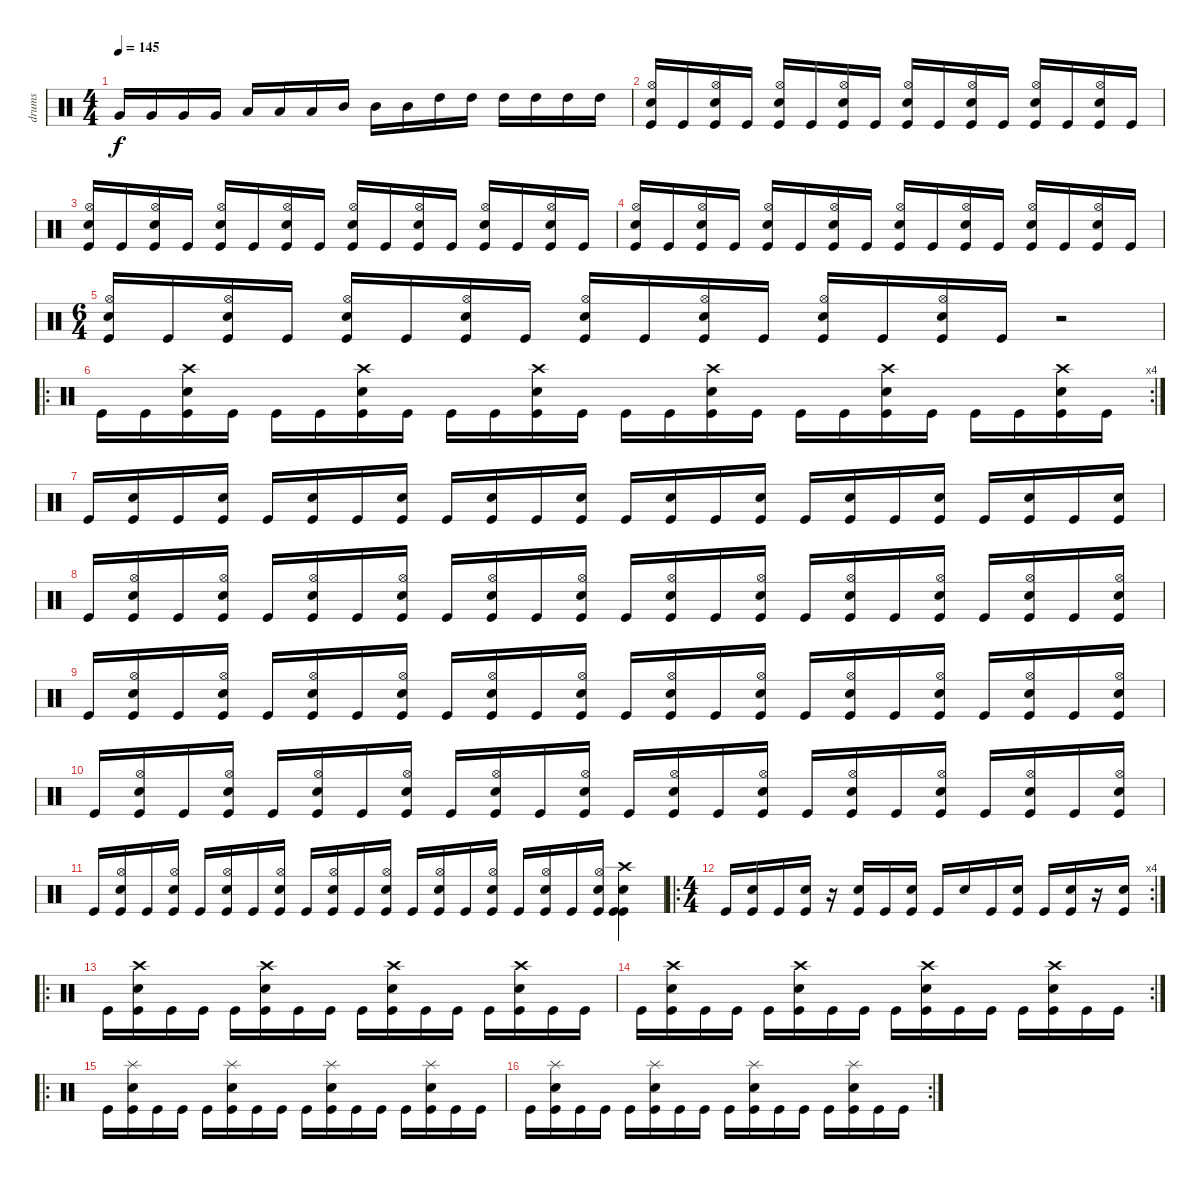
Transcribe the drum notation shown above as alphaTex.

\track ("drums" "drums") {instrument percussion}
\staff {score}
\articulation defaults
\ts (4 4)
\tempo 145
\clef neutral
\ks c "Very Low Tom (hit)".16{dy f} "Very Low Tom (hit)".16 "Very Low Tom (hit)".16 "Very Low Tom (hit)".16 "Low Tom (hit)".16 "Low Tom (hit)".16 "Low Tom (hit)".16 "Mid Tom (hit)".16 "Mid Tom (hit)".16 "Mid Tom (hit)".16 "High Tom (hit)".16 "High Tom (hit)".16 "High Tom (hit)".16 "High Tom (hit)".16 "High Tom (hit)".16 "High Tom (hit)".16
|
("Electric Snare (hit)" "Hi-Hat (open)" "Kick (hit)").16 "Kick (hit)".16 ("Electric Snare (hit)" "Hi-Hat (open)" "Kick (hit)").16 "Kick (hit)".16 ("Electric Snare (hit)" "Hi-Hat (open)" "Kick (hit)").16 "Kick (hit)".16 ("Electric Snare (hit)" "Hi-Hat (open)" "Kick (hit)").16 "Kick (hit)".16 ("Electric Snare (hit)" "Hi-Hat (open)" "Kick (hit)").16 "Kick (hit)".16 ("Electric Snare (hit)" "Hi-Hat (open)" "Kick (hit)").16 "Kick (hit)".16 ("Electric Snare (hit)" "Hi-Hat (open)" "Kick (hit)").16 "Kick (hit)".16 ("Electric Snare (hit)" "Hi-Hat (open)" "Kick (hit)").16 "Kick (hit)".16 |
("Electric Snare (hit)" "Hi-Hat (open)" "Kick (hit)").16 "Kick (hit)".16 ("Electric Snare (hit)" "Hi-Hat (open)" "Kick (hit)").16 "Kick (hit)".16 ("Electric Snare (hit)" "Hi-Hat (open)" "Kick (hit)").16 "Kick (hit)".16 ("Electric Snare (hit)" "Hi-Hat (open)" "Kick (hit)").16 "Kick (hit)".16 ("Electric Snare (hit)" "Hi-Hat (open)" "Kick (hit)").16 "Kick (hit)".16 ("Electric Snare (hit)" "Hi-Hat (open)" "Kick (hit)").16 "Kick (hit)".16 ("Electric Snare (hit)" "Hi-Hat (open)" "Kick (hit)").16 "Kick (hit)".16 ("Electric Snare (hit)" "Hi-Hat (open)" "Kick (hit)").16 "Kick (hit)".16 |
("Electric Snare (hit)" "Hi-Hat (open)" "Kick (hit)").16 "Kick (hit)".16 ("Electric Snare (hit)" "Hi-Hat (open)" "Kick (hit)").16 "Kick (hit)".16 ("Electric Snare (hit)" "Hi-Hat (open)" "Kick (hit)").16 "Kick (hit)".16 ("Electric Snare (hit)" "Hi-Hat (open)" "Kick (hit)").16 "Kick (hit)".16 ("Electric Snare (hit)" "Hi-Hat (open)" "Kick (hit)").16 "Kick (hit)".16 ("Electric Snare (hit)" "Hi-Hat (open)" "Kick (hit)").16 "Kick (hit)".16 ("Electric Snare (hit)" "Hi-Hat (open)" "Kick (hit)").16 "Kick (hit)".16 ("Electric Snare (hit)" "Hi-Hat (open)" "Kick (hit)").16 "Kick (hit)".16 |
\ts (6 4)
("Electric Snare (hit)" "Hi-Hat (open)" "Kick (hit)").16 "Kick (hit)".16 ("Electric Snare (hit)" "Hi-Hat (open)" "Kick (hit)").16 "Kick (hit)".16 ("Electric Snare (hit)" "Hi-Hat (open)" "Kick (hit)").16 "Kick (hit)".16 ("Electric Snare (hit)" "Hi-Hat (open)" "Kick (hit)").16 "Kick (hit)".16 ("Electric Snare (hit)" "Hi-Hat (open)" "Kick (hit)").16 "Kick (hit)".16 ("Electric Snare (hit)" "Hi-Hat (open)" "Kick (hit)").16 "Kick (hit)".16 ("Electric Snare (hit)" "Hi-Hat (open)" "Kick (hit)").16 "Kick (hit)".16 ("Electric Snare (hit)" "Hi-Hat (open)" "Kick (hit)").16 "Kick (hit)".16 r.2 |
\ro
\rc 4 "Kick (hit)".16 "Kick (hit)".16
("Crash high (hit)" "Electric Snare (hit)" "Kick (hit)").16 "Kick (hit)".16 "Kick (hit)".16 "Kick (hit)".16 ("Crash high (hit)" "Electric Snare (hit)" "Kick (hit)").16 "Kick (hit)".16 "Kick (hit)".16 "Kick (hit)".16 ("Crash high (hit)" "Electric Snare (hit)" "Kick (hit)").16 "Kick (hit)".16 "Kick (hit)".16 "Kick (hit)".16 ("Crash high (hit)" "Electric Snare (hit)" "Kick (hit)").16 "Kick (hit)".16 "Kick (hit)".16 "Kick (hit)".16 ("Crash high (hit)" "Electric Snare (hit)" "Kick (hit)").16 "Kick (hit)".16 "Kick (hit)".16 "Kick (hit)".16 ("Crash high (hit)" "Electric Snare (hit)" "Kick (hit)").16 "Kick (hit)".16 |
"Kick (hit)".16 ("Electric Snare (hit)" "Kick (hit)").16 "Kick (hit)".16 ("Electric Snare (hit)" "Kick (hit)").16 "Kick (hit)".16 ("Electric Snare (hit)" "Kick (hit)").16 "Kick (hit)".16 ("Electric Snare (hit)" "Kick (hit)").16 "Kick (hit)".16 ("Electric Snare (hit)" "Kick (hit)").16 "Kick (hit)".16 ("Electric Snare (hit)" "Kick (hit)").16 "Kick (hit)".16 ("Electric Snare (hit)" "Kick (hit)").16 "Kick (hit)".16 ("Electric Snare (hit)" "Kick (hit)").16 "Kick (hit)".16 ("Electric Snare (hit)" "Kick (hit)").16 "Kick (hit)".16 ("Electric Snare (hit)" "Kick (hit)").16 "Kick (hit)".16 ("Electric Snare (hit)" "Kick (hit)").16 "Kick (hit)".16 ("Electric Snare (hit)" "Kick (hit)").16 |
"Kick (hit)".16 ("Hi-Hat (open)" "Electric Snare (hit)" "Kick (hit)").16 "Kick (hit)".16 ("Hi-Hat (open)" "Electric Snare (hit)" "Kick (hit)").16 "Kick (hit)".16 ("Hi-Hat (open)" "Electric Snare (hit)" "Kick (hit)").16 "Kick (hit)".16 ("Hi-Hat (open)" "Electric Snare (hit)" "Kick (hit)").16 "Kick (hit)".16 ("Hi-Hat (open)" "Electric Snare (hit)" "Kick (hit)").16 "Kick (hit)".16 ("Hi-Hat (open)" "Electric Snare (hit)" "Kick (hit)").16 "Kick (hit)".16 ("Hi-Hat (open)" "Electric Snare (hit)" "Kick (hit)").16 "Kick (hit)".16 ("Hi-Hat (open)" "Electric Snare (hit)" "Kick (hit)").16 "Kick (hit)".16 ("Hi-Hat (open)" "Electric Snare (hit)" "Kick (hit)").16 "Kick (hit)".16 ("Hi-Hat (open)" "Electric Snare (hit)" "Kick (hit)").16 "Kick (hit)".16 ("Hi-Hat (open)" "Electric Snare (hit)" "Kick (hit)").16 "Kick (hit)".16 ("Hi-Hat (open)" "Electric Snare (hit)" "Kick (hit)").16 |
"Kick (hit)".16 ("Hi-Hat (open)" "Electric Snare (hit)" "Kick (hit)").16 "Kick (hit)".16 ("Hi-Hat (open)" "Electric Snare (hit)" "Kick (hit)").16 "Kick (hit)".16 ("Hi-Hat (open)" "Electric Snare (hit)" "Kick (hit)").16 "Kick (hit)".16 ("Hi-Hat (open)" "Electric Snare (hit)" "Kick (hit)").16 "Kick (hit)".16 ("Hi-Hat (open)" "Electric Snare (hit)" "Kick (hit)").16 "Kick (hit)".16 ("Hi-Hat (open)" "Electric Snare (hit)" "Kick (hit)").16 "Kick (hit)".16 ("Hi-Hat (open)" "Electric Snare (hit)" "Kick (hit)").16 "Kick (hit)".16 ("Hi-Hat (open)" "Electric Snare (hit)" "Kick (hit)").16 "Kick (hit)".16 ("Hi-Hat (open)" "Electric Snare (hit)" "Kick (hit)").16 "Kick (hit)".16 ("Hi-Hat (open)" "Electric Snare (hit)" "Kick (hit)").16 "Kick (hit)".16 ("Hi-Hat (open)" "Electric Snare (hit)" "Kick (hit)").16 "Kick (hit)".16 ("Hi-Hat (open)" "Electric Snare (hit)" "Kick (hit)").16 |
"Kick (hit)".16 ("Hi-Hat (open)" "Electric Snare (hit)" "Kick (hit)").16 "Kick (hit)".16 ("Hi-Hat (open)" "Electric Snare (hit)" "Kick (hit)").16 "Kick (hit)".16 ("Hi-Hat (open)" "Electric Snare (hit)" "Kick (hit)").16 "Kick (hit)".16 ("Hi-Hat (open)" "Electric Snare (hit)" "Kick (hit)").16 "Kick (hit)".16 ("Hi-Hat (open)" "Electric Snare (hit)" "Kick (hit)").16 "Kick (hit)".16 ("Hi-Hat (open)" "Electric Snare (hit)" "Kick (hit)").16 "Kick (hit)".16 ("Hi-Hat (open)" "Electric Snare (hit)" "Kick (hit)").16 "Kick (hit)".16 ("Hi-Hat (open)" "Electric Snare (hit)" "Kick (hit)").16 "Kick (hit)".16 ("Hi-Hat (open)" "Electric Snare (hit)" "Kick (hit)").16 "Kick (hit)".16 ("Hi-Hat (open)" "Electric Snare (hit)" "Kick (hit)").16 "Kick (hit)".16 ("Hi-Hat (open)" "Electric Snare (hit)" "Kick (hit)").16 "Kick (hit)".16 ("Hi-Hat (open)" "Electric Snare (hit)" "Kick (hit)").16 |
"Kick (hit)".16 ("Hi-Hat (open)" "Electric Snare (hit)" "Kick (hit)").16 "Kick (hit)".16 ("Hi-Hat (open)" "Electric Snare (hit)" "Kick (hit)").16 "Kick (hit)".16 ("Hi-Hat (open)" "Electric Snare (hit)" "Kick (hit)").16 "Kick (hit)".16 ("Hi-Hat (open)" "Electric Snare (hit)" "Kick (hit)").16 "Kick (hit)".16 ("Hi-Hat (open)" "Electric Snare (hit)" "Kick (hit)").16 "Kick (hit)".16 ("Hi-Hat (open)" "Electric Snare (hit)" "Kick (hit)").16 "Kick (hit)".16 ("Hi-Hat (open)" "Electric Snare (hit)" "Kick (hit)").16 "Kick (hit)".16 ("Hi-Hat (open)" "Electric Snare (hit)" "Kick (hit)").16 "Kick (hit)".16 ("Hi-Hat (open)" "Electric Snare (hit)" "Kick (hit)").16 "Kick (hit)".16 ("Hi-Hat (open)" "Electric Snare (hit)" "Kick (hit)").16 ("Crash high (hit)" "Electric Snare (hit)" "Kick (hit)" "Kick (hit)").4 |
\ro
\rc 4
\ts (4 4)
"Kick (hit)".16 ("Electric Snare (hit)" "Kick (hit)").16 "Kick (hit)".16 ("Electric Snare (hit)" "Kick (hit)").16 r.16 ("Electric Snare (hit)" "Kick (hit)").16 "Kick (hit)".16 ("Electric Snare (hit)" "Kick (hit)").16 "Kick (hit)".16 "Electric Snare (hit)".16 "Kick (hit)".16 ("Electric Snare (hit)" "Kick (hit)").16 "Kick (hit)".16 ("Electric Snare (hit)" "Kick (hit)").16 r.16 ("Electric Snare (hit)" "Kick (hit)").16 |
\ro "Kick (hit)".16
("Crash high (hit)" "Electric Snare (hit)" "Kick (hit)").16 "Kick (hit)".16 "Kick (hit)".16 "Kick (hit)".16 ("Crash high (hit)" "Electric Snare (hit)" "Kick (hit)").16 "Kick (hit)".16 "Kick (hit)".16 "Kick (hit)".16 ("Crash high (hit)" "Electric Snare (hit)" "Kick (hit)").16 "Kick (hit)".16 "Kick (hit)".16 "Kick (hit)".16 ("Crash high (hit)" "Electric Snare (hit)" "Kick (hit)").16 "Kick (hit)".16 "Kick (hit)".16 |
\rc 2 "Kick (hit)".16
("Crash high (hit)" "Electric Snare (hit)" "Kick (hit)").16 "Kick (hit)".16 "Kick (hit)".16 "Kick (hit)".16 ("Crash high (hit)" "Electric Snare (hit)" "Kick (hit)").16 "Kick (hit)".16 "Kick (hit)".16 "Kick (hit)".16 ("Crash high (hit)" "Electric Snare (hit)" "Kick (hit)").16 "Kick (hit)".16 "Kick (hit)".16 "Kick (hit)".16 ("Crash high (hit)" "Electric Snare (hit)" "Kick (hit)").16 "Kick (hit)".16 "Kick (hit)".16 |
\ro "Kick (hit)".16
("Splash (hit)" "Electric Snare (hit)" "Kick (hit)").16 "Kick (hit)".16 "Kick (hit)".16 "Kick (hit)".16 ("Splash (hit)" "Electric Snare (hit)" "Kick (hit)").16 "Kick (hit)".16 "Kick (hit)".16 "Kick (hit)".16 ("Splash (hit)" "Electric Snare (hit)" "Kick (hit)").16 "Kick (hit)".16 "Kick (hit)".16 "Kick (hit)".16 ("Splash (hit)" "Electric Snare (hit)" "Kick (hit)").16 "Kick (hit)".16 "Kick (hit)".16 |
\rc 2 "Kick (hit)".16
("Splash (hit)" "Electric Snare (hit)" "Kick (hit)").16 "Kick (hit)".16 "Kick (hit)".16 "Kick (hit)".16 ("Splash (hit)" "Electric Snare (hit)" "Kick (hit)").16 "Kick (hit)".16 "Kick (hit)".16 "Kick (hit)".16 ("Splash (hit)" "Electric Snare (hit)" "Kick (hit)").16 "Kick (hit)".16 "Kick (hit)".16 "Kick (hit)".16 ("Splash (hit)" "Electric Snare (hit)" "Kick (hit)").16 "Kick (hit)".16 "Kick (hit)".16
